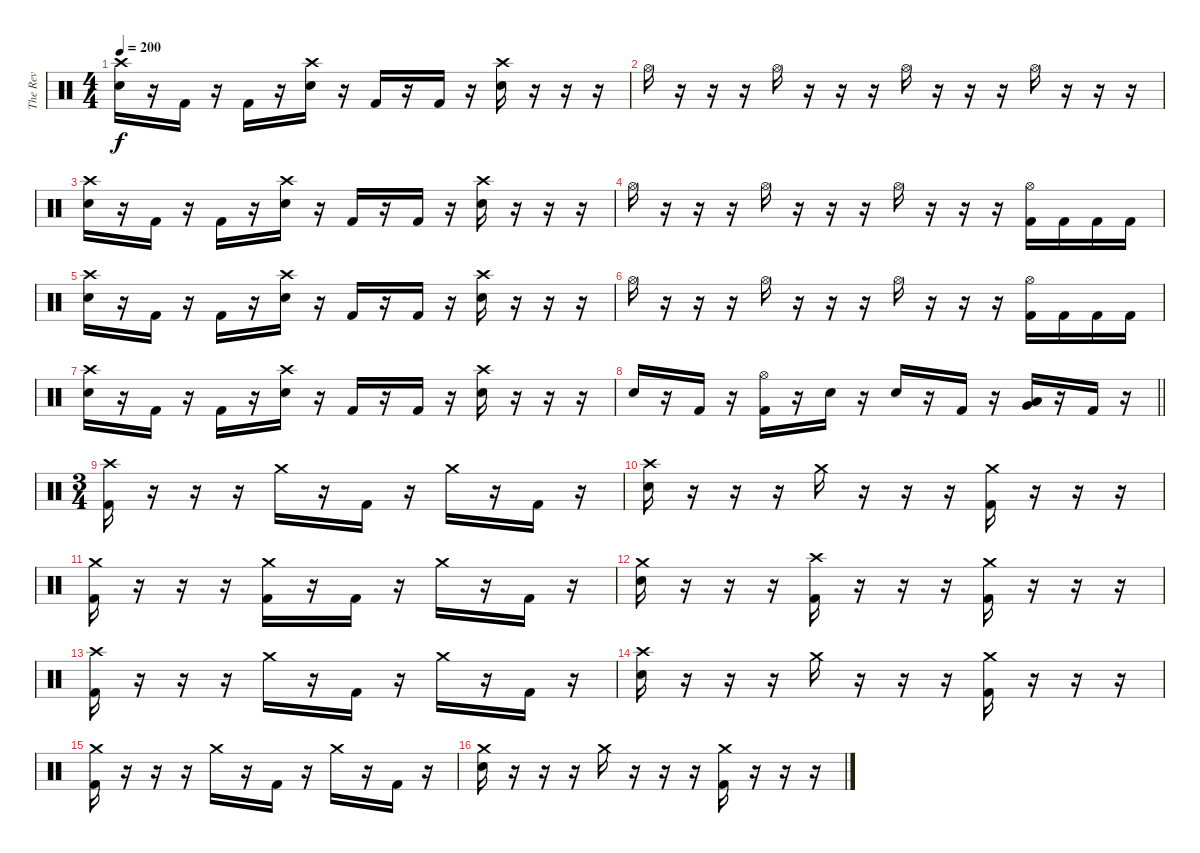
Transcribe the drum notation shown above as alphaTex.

\track ("The Rev" "The Rev") {instrument percussion}
\staff {score}
\articulation defaults
\ts (4 4)
\tempo 200
\clef neutral
\ks c
("Crash high (hit)" "Electric Snare (hit)").16{dy f} r.16 "Kick (hit) 2".16 r.16 "Kick (hit) 2".16 r.16 ("Crash high (hit)" "Electric Snare (hit)").16 r.16 "Kick (hit) 2".16 r.16 "Kick (hit) 2".16 r.16 ("Crash high (hit)" "Electric Snare (hit)").16 r.16 r.16 r.16 |
"Hi-Hat (open)".16 r.16 r.16 r.16 "Hi-Hat (open)".16 r.16 r.16 r.16 "Hi-Hat (open)".16 r.16 r.16 r.16 "Hi-Hat (open)".16 r.16 r.16 r.16 |
("Crash high (hit)" "Electric Snare (hit)").16 r.16 "Kick (hit) 2".16 r.16 "Kick (hit) 2".16 r.16 ("Crash high (hit)" "Electric Snare (hit)").16 r.16 "Kick (hit) 2".16 r.16 "Kick (hit) 2".16 r.16 ("Crash high (hit)" "Electric Snare (hit)").16 r.16 r.16 r.16 |
"Hi-Hat (open)".16 r.16 r.16 r.16 "Hi-Hat (open)".16 r.16 r.16 r.16 "Hi-Hat (open)".16 r.16 r.16 r.16 ("Hi-Hat (open)" "Kick (hit) 2").16 "Kick (hit) 2".16 "Kick (hit) 2".16 "Kick (hit) 2".16 |
("Crash high (hit)" "Electric Snare (hit)").16 r.16 "Kick (hit) 2".16 r.16 "Kick (hit) 2".16 r.16 ("Crash high (hit)" "Electric Snare (hit)").16 r.16 "Kick (hit) 2".16 r.16 "Kick (hit) 2".16 r.16 ("Crash high (hit)" "Electric Snare (hit)").16 r.16 r.16 r.16 |
"Hi-Hat (open)".16 r.16 r.16 r.16 "Hi-Hat (open)".16 r.16 r.16 r.16 "Hi-Hat (open)".16 r.16 r.16 r.16 ("Hi-Hat (open)" "Kick (hit) 2").16 "Kick (hit) 2".16 "Kick (hit) 2".16 "Kick (hit) 2".16 |
("Crash high (hit)" "Electric Snare (hit)").16 r.16 "Kick (hit) 2".16 r.16 "Kick (hit) 2".16 r.16 ("Crash high (hit)" "Electric Snare (hit)").16 r.16 "Kick (hit) 2".16 r.16 "Kick (hit) 2".16 r.16 ("Crash high (hit)" "Electric Snare (hit)").16 r.16 r.16 r.16 |
\barLineRight lightlight "Electric Snare (hit)".16
r.16 "Kick (hit) 2".16 r.16 ("Hi-Hat (open)" "Kick (hit) 2").16 r.16 "Electric Snare (hit)".16 r.16 "Electric Snare (hit)".16 r.16 "Kick (hit) 2".16 r.16 ("Low Floor Tom (hit)" "Very Low Tom (hit)").16 r.16 "Kick (hit) 2".16 r.16 |
\ts (3 4)
("Crash high (hit)" "Kick (hit) 2").16 r.16 r.16 r.16 "Crash medium (hit)".16 r.16 "Kick (hit) 2".16 r.16 "Crash medium (hit)".16 r.16 "Kick (hit) 2".16 r.16 |
("Crash high (hit)" "Electric Snare (hit)").16 r.16 r.16 r.16 "Crash medium (hit)".16 r.16 r.16 r.16 ("Crash medium (hit)" "Kick (hit) 2").16 r.16 r.16 r.16 |
("Crash medium (hit)" "Kick (hit) 2").16 r.16 r.16 r.16 ("Crash medium (hit)" "Kick (hit) 2").16 r.16 "Kick (hit) 2".16 r.16 "Crash medium (hit)".16 r.16 "Kick (hit) 2".16 r.16 |
("Crash medium (hit)" "Electric Snare (hit)").16 r.16 r.16 r.16 ("Crash high (hit)" "Kick (hit) 2").16 r.16 r.16 r.16 ("Crash medium (hit)" "Kick (hit) 2").16 r.16 r.16 r.16 |
("Crash high (hit)" "Kick (hit) 2").16 r.16 r.16 r.16 "Crash medium (hit)".16 r.16 "Kick (hit) 2".16 r.16 "Crash medium (hit)".16 r.16 "Kick (hit) 2".16 r.16 |
("Crash high (hit)" "Electric Snare (hit)").16 r.16 r.16 r.16 "Crash medium (hit)".16 r.16 r.16 r.16 ("Crash medium (hit)" "Kick (hit) 2").16 r.16 r.16 r.16 |
("Crash medium (hit)" "Kick (hit) 2").16 r.16 r.16 r.16 "Crash medium (hit)".16 r.16 "Kick (hit) 2".16 r.16 "Crash medium (hit)".16 r.16 "Kick (hit) 2".16 r.16 |
("Crash medium (hit)" "Electric Snare (hit)").16 r.16 r.16 r.16 "Crash medium (hit)".16 r.16 r.16 r.16 ("Crash medium (hit)" "Kick (hit) 2").16 r.16 r.16 r.16
